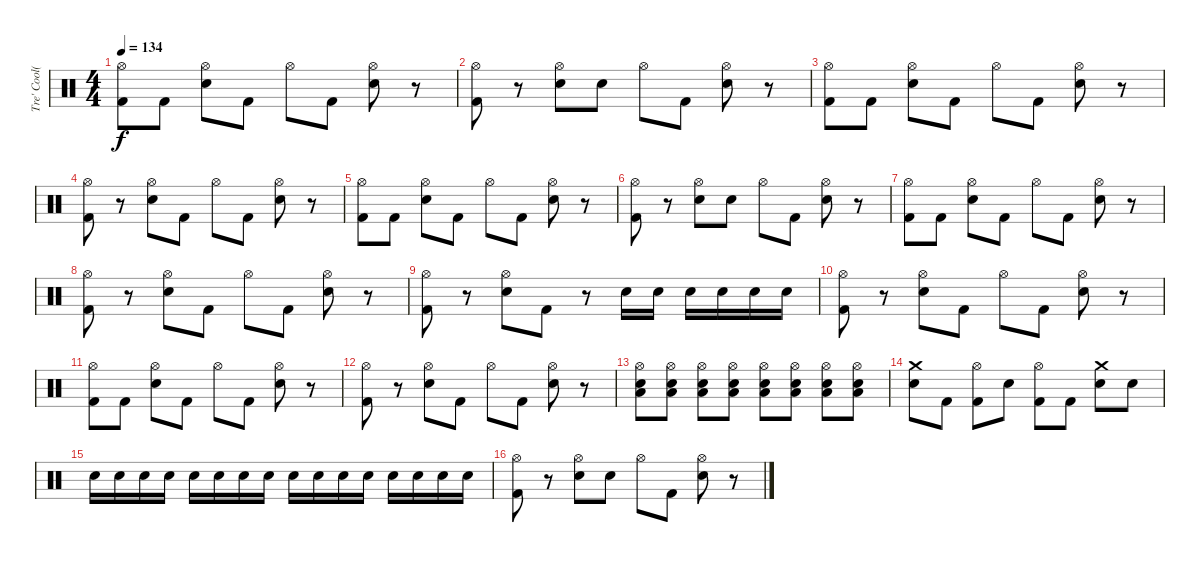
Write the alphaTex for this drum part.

\track ("Tre' Cool(Drums)" "Tre' Cool(") {instrument percussion}
\staff {score}
\articulation defaults
\ts (4 4)
\tempo 134
\clef neutral
\ks c
("Kick (hit) 2" "Hi-Hat (open)").8{dy f} "Kick (hit) 2".8 ("Electric Snare (hit)" "Hi-Hat (open)").8 "Kick (hit) 2".8 "Hi-Hat (open)".8 "Kick (hit) 2".8 ("Electric Snare (hit)" "Hi-Hat (open)").8 r.8 |
("Kick (hit) 2" "Hi-Hat (open)").8 r.8 ("Electric Snare (hit)" "Hi-Hat (open)").8 "Electric Snare (hit)".8 "Hi-Hat (open)".8 "Kick (hit) 2".8 ("Electric Snare (hit)" "Hi-Hat (open)").8 r.8 |
("Kick (hit) 2" "Hi-Hat (open)").8 "Kick (hit) 2".8 ("Electric Snare (hit)" "Hi-Hat (open)").8 "Kick (hit) 2".8 "Hi-Hat (open)".8 "Kick (hit) 2".8 ("Electric Snare (hit)" "Hi-Hat (open)").8 r.8 |
("Kick (hit) 2" "Hi-Hat (open)").8 r.8 ("Electric Snare (hit)" "Hi-Hat (open)").8 "Kick (hit) 2".8 "Hi-Hat (open)".8 "Kick (hit) 2".8 ("Electric Snare (hit)" "Hi-Hat (open)").8 r.8 |
("Kick (hit) 2" "Hi-Hat (open)").8 "Kick (hit) 2".8 ("Electric Snare (hit)" "Hi-Hat (open)").8 "Kick (hit) 2".8 "Hi-Hat (open)".8 "Kick (hit) 2".8 ("Electric Snare (hit)" "Hi-Hat (open)").8 r.8 |
("Kick (hit) 2" "Hi-Hat (open)").8 r.8 ("Electric Snare (hit)" "Hi-Hat (open)").8 "Electric Snare (hit)".8 "Hi-Hat (open)".8 "Kick (hit) 2".8 ("Electric Snare (hit)" "Hi-Hat (open)").8 r.8 |
("Kick (hit) 2" "Hi-Hat (open)").8 "Kick (hit) 2".8 ("Electric Snare (hit)" "Hi-Hat (open)").8 "Kick (hit) 2".8 "Hi-Hat (open)".8 "Kick (hit) 2".8 ("Electric Snare (hit)" "Hi-Hat (open)").8 r.8 |
("Kick (hit) 2" "Hi-Hat (open)").8 r.8 ("Electric Snare (hit)" "Hi-Hat (open)").8 "Kick (hit) 2".8 "Hi-Hat (open)".8 "Kick (hit) 2".8 ("Electric Snare (hit)" "Hi-Hat (open)").8 r.8 |
("Kick (hit) 2" "Hi-Hat (open)").8 r.8 ("Electric Snare (hit)" "Hi-Hat (open)").8 "Kick (hit) 2".8 r.8 "Electric Snare (hit)".16 "Electric Snare (hit)".16 "Electric Snare (hit)".16 "Electric Snare (hit)".16 "Electric Snare (hit)".16 "Electric Snare (hit)".16 |
("Kick (hit) 2" "Hi-Hat (open)").8 r.8 ("Electric Snare (hit)" "Hi-Hat (open)").8 "Kick (hit) 2".8 "Hi-Hat (open)".8 "Kick (hit) 2".8 ("Electric Snare (hit)" "Hi-Hat (open)").8 r.8 |
("Kick (hit) 2" "Hi-Hat (open)").8 "Kick (hit) 2".8 ("Electric Snare (hit)" "Hi-Hat (open)").8 "Kick (hit) 2".8 "Hi-Hat (open)".8 "Kick (hit) 2".8 ("Electric Snare (hit)" "Hi-Hat (open)").8 r.8 |
("Kick (hit) 2" "Hi-Hat (open)").8 r.8 ("Electric Snare (hit)" "Hi-Hat (open)").8 "Kick (hit) 2".8 "Hi-Hat (open)".8 "Kick (hit) 2".8 ("Electric Snare (hit)" "Hi-Hat (open)").8 r.8 |
("Low Floor Tom (hit)" "Electric Snare (hit)" "Hi-Hat (open)").8{volume 8} ("Low Floor Tom (hit)" "Electric Snare (hit)" "Hi-Hat (open)").8 ("Low Floor Tom (hit)" "Electric Snare (hit)" "Hi-Hat (open)").8{volume 10} ("Low Floor Tom (hit)" "Electric Snare (hit)" "Hi-Hat (open)").8 ("Low Floor Tom (hit)" "Electric Snare (hit)" "Hi-Hat (open)").8{volume 13} ("Low Floor Tom (hit)" "Electric Snare (hit)" "Hi-Hat (open)").8 ("Low Floor Tom (hit)" "Electric Snare (hit)" "Hi-Hat (open)").8{volume 16} ("Low Floor Tom (hit)" "Electric Snare (hit)" "Hi-Hat (open)").8 |
("Electric Snare (hit)" "Crash medium (hit)").8 "Kick (hit) 2".8 ("Kick (hit) 2" "Hi-Hat (open)").8 "Electric Snare (hit)".8 ("Kick (hit) 2" "Hi-Hat (open)").8 "Kick (hit) 2".8 ("Electric Snare (hit)" "Crash medium (hit)").8 "Electric Snare (hit)".8 |
"Electric Snare (hit)".16 "Electric Snare (hit)".16 "Electric Snare (hit)".16 "Electric Snare (hit)".16 "Electric Snare (hit)".16 "Electric Snare (hit)".16 "Electric Snare (hit)".16 "Electric Snare (hit)".16 "Electric Snare (hit)".16 "Electric Snare (hit)".16 "Electric Snare (hit)".16 "Electric Snare (hit)".16 "Electric Snare (hit)".16 "Electric Snare (hit)".16 "Electric Snare (hit)".16 "Electric Snare (hit)".16 |
("Kick (hit) 2" "Hi-Hat (open)").8 r.8 ("Electric Snare (hit)" "Hi-Hat (open)").8 "Electric Snare (hit)".8 "Hi-Hat (open)".8 "Kick (hit) 2".8 ("Electric Snare (hit)" "Hi-Hat (open)").8 r.8
